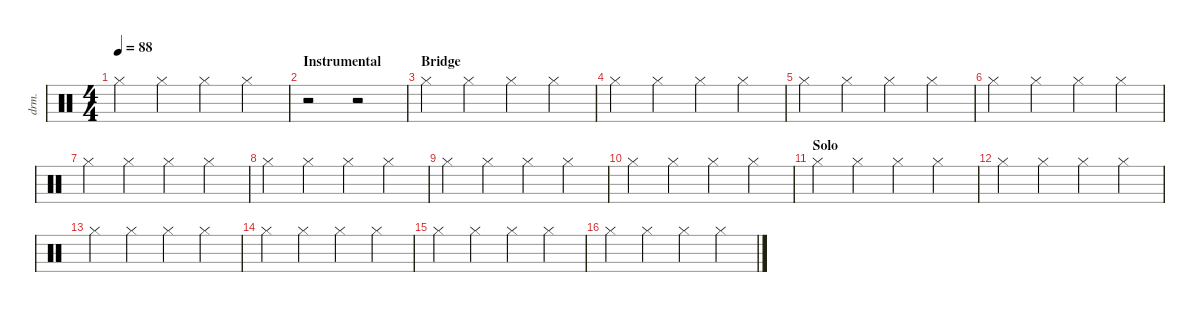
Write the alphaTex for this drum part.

\defaultSystemsLayout 4
\hideDynamics
\bracketExtendMode nobrackets
\otherSystemsTrackNameOrientation horizontal
\track ("Drumkit" "drm.") {instrument percussion}
\staff {score}
\articulation defaults
\ts (4 4)
\tempo 88
\clef neutral
\ks c "Hi-Hat (closed)".4{dy mf beam Down} "Hi-Hat (closed)".4{beam Down} "Hi-Hat (closed)".4{beam Down} "Hi-Hat (closed)".4{beam Down}
|
\section ("" "Instrumental")
r.2{beam Down} r.2{beam Down} |
\section ("" "Bridge")
"Hi-Hat (closed)".4{beam Down} "Hi-Hat (closed)".4{beam Down} "Hi-Hat (closed)".4{beam Down} "Hi-Hat (closed)".4{beam Down} |
"Hi-Hat (closed)".4{beam Down} "Hi-Hat (closed)".4{beam Down} "Hi-Hat (closed)".4{beam Down} "Hi-Hat (closed)".4{beam Down} |
"Hi-Hat (closed)".4{beam Down} "Hi-Hat (closed)".4{beam Down} "Hi-Hat (closed)".4{beam Down} "Hi-Hat (closed)".4{beam Down} |
"Hi-Hat (closed)".4{beam Down} "Hi-Hat (closed)".4{beam Down} "Hi-Hat (closed)".4{beam Down} "Hi-Hat (closed)".4{beam Down} |
"Hi-Hat (closed)".4{beam Down} "Hi-Hat (closed)".4{beam Down} "Hi-Hat (closed)".4{beam Down} "Hi-Hat (closed)".4{beam Down} |
"Hi-Hat (closed)".4{beam Down} "Hi-Hat (closed)".4{beam Down} "Hi-Hat (closed)".4{beam Down} "Hi-Hat (closed)".4{beam Down} |
"Hi-Hat (closed)".4{beam Down} "Hi-Hat (closed)".4{beam Down} "Hi-Hat (closed)".4{beam Down} "Hi-Hat (closed)".4{beam Down} |
"Hi-Hat (closed)".4{beam Down} "Hi-Hat (closed)".4{beam Down} "Hi-Hat (closed)".4{beam Down} "Hi-Hat (closed)".4{beam Down} |
\section ("" "Solo")
"Hi-Hat (closed)".4{beam Down} "Hi-Hat (closed)".4{beam Down} "Hi-Hat (closed)".4{beam Down} "Hi-Hat (closed)".4{beam Down} |
"Hi-Hat (closed)".4{beam Down} "Hi-Hat (closed)".4{beam Down} "Hi-Hat (closed)".4{beam Down} "Hi-Hat (closed)".4{beam Down} |
"Hi-Hat (closed)".4{beam Down} "Hi-Hat (closed)".4{beam Down} "Hi-Hat (closed)".4{beam Down} "Hi-Hat (closed)".4{beam Down} |
"Hi-Hat (closed)".4{beam Down} "Hi-Hat (closed)".4{beam Down} "Hi-Hat (closed)".4{beam Down} "Hi-Hat (closed)".4{beam Down} |
"Hi-Hat (closed)".4{beam Down} "Hi-Hat (closed)".4{beam Down} "Hi-Hat (closed)".4{beam Down} "Hi-Hat (closed)".4{beam Down} |
"Hi-Hat (closed)".4{beam Down} "Hi-Hat (closed)".4{beam Down} "Hi-Hat (closed)".4{beam Down} "Hi-Hat (closed)".4{beam Down}
